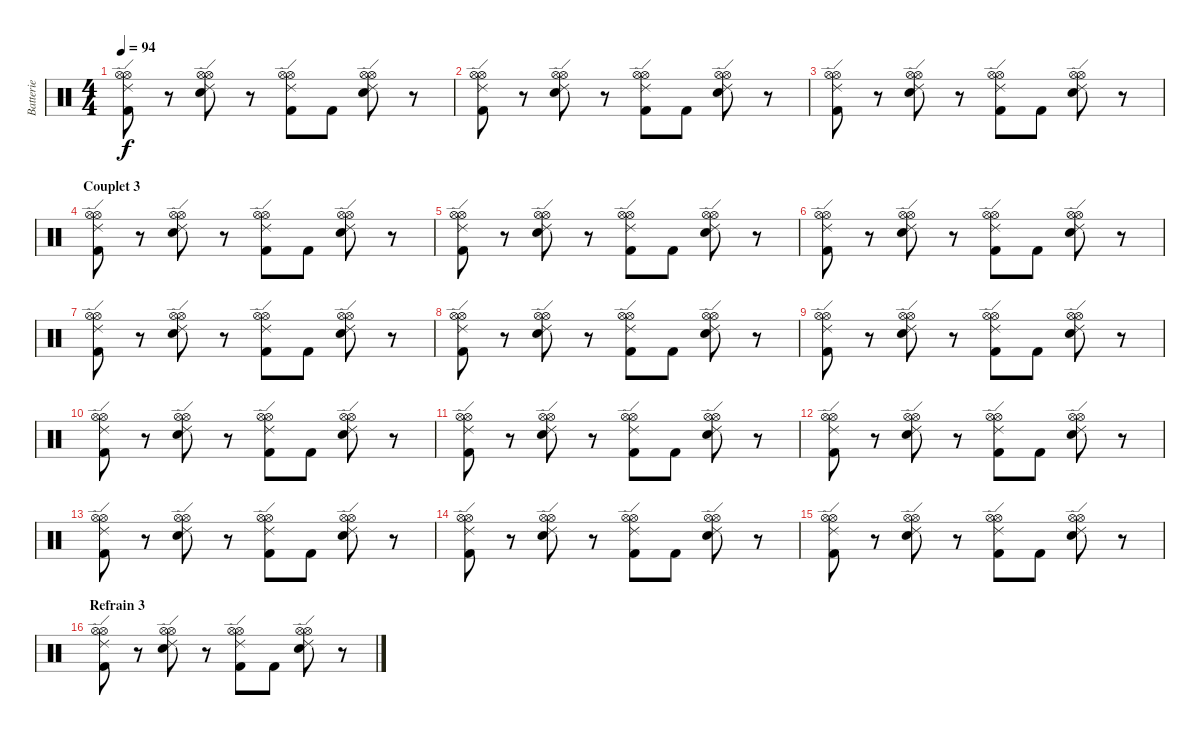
\track ("Batterie" "Batterie") {instrument percussion}
\staff {score}
\articulation defaults
\ts (4 4)
\tempo 94
\clef neutral
\ks c
("Hi-Hat (open)" "Hi-Hat (open)" "Ride (edge) 2" "Kick (hit) 2").8{dy f} r.8 ("Snare (hit) 2" "Hi-Hat (open)" "Hi-Hat (open)" "Ride (edge) 2").8 r.8 ("Hi-Hat (open)" "Hi-Hat (open)" "Ride (edge) 2" "Kick (hit) 2").8 "Kick (hit) 2".8 ("Snare (hit) 2" "Hi-Hat (open)" "Hi-Hat (open)" "Ride (edge) 2").8 r.8 |
("Hi-Hat (open)" "Hi-Hat (open)" "Ride (edge) 2" "Kick (hit) 2").8 r.8 ("Snare (hit) 2" "Hi-Hat (open)" "Hi-Hat (open)" "Ride (edge) 2").8 r.8 ("Hi-Hat (open)" "Hi-Hat (open)" "Ride (edge) 2" "Kick (hit) 2").8 "Kick (hit) 2".8 ("Snare (hit) 2" "Hi-Hat (open)" "Hi-Hat (open)" "Ride (edge) 2").8 r.8 |
("Hi-Hat (open)" "Hi-Hat (open)" "Ride (edge) 2" "Kick (hit) 2").8 r.8 ("Snare (hit) 2" "Hi-Hat (open)" "Hi-Hat (open)" "Ride (edge) 2").8 r.8 ("Hi-Hat (open)" "Hi-Hat (open)" "Ride (edge) 2" "Kick (hit) 2").8 "Kick (hit) 2".8 ("Snare (hit) 2" "Hi-Hat (open)" "Hi-Hat (open)" "Ride (edge) 2").8 r.8 |
\section ("" "Couplet 3")
("Hi-Hat (open)" "Hi-Hat (open)" "Ride (edge) 2" "Kick (hit) 2").8 r.8 ("Snare (hit) 2" "Hi-Hat (open)" "Hi-Hat (open)" "Ride (edge) 2").8 r.8 ("Hi-Hat (open)" "Hi-Hat (open)" "Ride (edge) 2" "Kick (hit) 2").8 "Kick (hit) 2".8 ("Snare (hit) 2" "Hi-Hat (open)" "Hi-Hat (open)" "Ride (edge) 2").8 r.8 |
("Hi-Hat (open)" "Hi-Hat (open)" "Ride (edge) 2" "Kick (hit) 2").8 r.8 ("Snare (hit) 2" "Hi-Hat (open)" "Hi-Hat (open)" "Ride (edge) 2").8 r.8 ("Hi-Hat (open)" "Hi-Hat (open)" "Ride (edge) 2" "Kick (hit) 2").8 "Kick (hit) 2".8 ("Snare (hit) 2" "Hi-Hat (open)" "Hi-Hat (open)" "Ride (edge) 2").8 r.8 |
("Hi-Hat (open)" "Hi-Hat (open)" "Ride (edge) 2" "Kick (hit) 2").8 r.8 ("Snare (hit) 2" "Hi-Hat (open)" "Hi-Hat (open)" "Ride (edge) 2").8 r.8 ("Hi-Hat (open)" "Hi-Hat (open)" "Ride (edge) 2" "Kick (hit) 2").8 "Kick (hit) 2".8 ("Snare (hit) 2" "Hi-Hat (open)" "Hi-Hat (open)" "Ride (edge) 2").8 r.8 |
("Hi-Hat (open)" "Hi-Hat (open)" "Ride (edge) 2" "Kick (hit) 2").8 r.8 ("Snare (hit) 2" "Hi-Hat (open)" "Hi-Hat (open)" "Ride (edge) 2").8 r.8 ("Hi-Hat (open)" "Hi-Hat (open)" "Ride (edge) 2" "Kick (hit) 2").8 "Kick (hit) 2".8 ("Snare (hit) 2" "Hi-Hat (open)" "Hi-Hat (open)" "Ride (edge) 2").8 r.8 |
("Hi-Hat (open)" "Hi-Hat (open)" "Ride (edge) 2" "Kick (hit) 2").8 r.8 ("Snare (hit) 2" "Hi-Hat (open)" "Hi-Hat (open)" "Ride (edge) 2").8 r.8 ("Hi-Hat (open)" "Hi-Hat (open)" "Ride (edge) 2" "Kick (hit) 2").8 "Kick (hit) 2".8 ("Snare (hit) 2" "Hi-Hat (open)" "Hi-Hat (open)" "Ride (edge) 2").8 r.8 |
("Hi-Hat (open)" "Hi-Hat (open)" "Ride (edge) 2" "Kick (hit) 2").8 r.8 ("Snare (hit) 2" "Hi-Hat (open)" "Hi-Hat (open)" "Ride (edge) 2").8 r.8 ("Hi-Hat (open)" "Hi-Hat (open)" "Ride (edge) 2" "Kick (hit) 2").8 "Kick (hit) 2".8 ("Snare (hit) 2" "Hi-Hat (open)" "Hi-Hat (open)" "Ride (edge) 2").8 r.8 |
("Hi-Hat (open)" "Hi-Hat (open)" "Ride (edge) 2" "Kick (hit) 2").8 r.8 ("Snare (hit) 2" "Hi-Hat (open)" "Hi-Hat (open)" "Ride (edge) 2").8 r.8 ("Hi-Hat (open)" "Hi-Hat (open)" "Ride (edge) 2" "Kick (hit) 2").8 "Kick (hit) 2".8 ("Snare (hit) 2" "Hi-Hat (open)" "Hi-Hat (open)" "Ride (edge) 2").8 r.8 |
("Hi-Hat (open)" "Hi-Hat (open)" "Ride (edge) 2" "Kick (hit) 2").8 r.8 ("Snare (hit) 2" "Hi-Hat (open)" "Hi-Hat (open)" "Ride (edge) 2").8 r.8 ("Hi-Hat (open)" "Hi-Hat (open)" "Ride (edge) 2" "Kick (hit) 2").8 "Kick (hit) 2".8 ("Snare (hit) 2" "Hi-Hat (open)" "Hi-Hat (open)" "Ride (edge) 2").8 r.8 |
("Hi-Hat (open)" "Hi-Hat (open)" "Ride (edge) 2" "Kick (hit) 2").8 r.8 ("Snare (hit) 2" "Hi-Hat (open)" "Hi-Hat (open)" "Ride (edge) 2").8 r.8 ("Hi-Hat (open)" "Hi-Hat (open)" "Ride (edge) 2" "Kick (hit) 2").8 "Kick (hit) 2".8 ("Snare (hit) 2" "Hi-Hat (open)" "Hi-Hat (open)" "Ride (edge) 2").8 r.8 |
("Hi-Hat (open)" "Hi-Hat (open)" "Ride (edge) 2" "Kick (hit) 2").8 r.8 ("Snare (hit) 2" "Hi-Hat (open)" "Hi-Hat (open)" "Ride (edge) 2").8 r.8 ("Hi-Hat (open)" "Hi-Hat (open)" "Ride (edge) 2" "Kick (hit) 2").8 "Kick (hit) 2".8 ("Snare (hit) 2" "Hi-Hat (open)" "Hi-Hat (open)" "Ride (edge) 2").8 r.8 |
("Hi-Hat (open)" "Hi-Hat (open)" "Ride (edge) 2" "Kick (hit) 2").8 r.8 ("Snare (hit) 2" "Hi-Hat (open)" "Hi-Hat (open)" "Ride (edge) 2").8 r.8 ("Hi-Hat (open)" "Hi-Hat (open)" "Ride (edge) 2" "Kick (hit) 2").8 "Kick (hit) 2".8 ("Snare (hit) 2" "Hi-Hat (open)" "Hi-Hat (open)" "Ride (edge) 2").8 r.8 |
("Hi-Hat (open)" "Hi-Hat (open)" "Ride (edge) 2" "Kick (hit) 2").8 r.8 ("Snare (hit) 2" "Hi-Hat (open)" "Hi-Hat (open)" "Ride (edge) 2").8 r.8 ("Hi-Hat (open)" "Hi-Hat (open)" "Ride (edge) 2" "Kick (hit) 2").8 "Kick (hit) 2".8 ("Snare (hit) 2" "Hi-Hat (open)" "Hi-Hat (open)" "Ride (edge) 2").8 r.8 |
\section ("" "Refrain 3")
("Hi-Hat (open)" "Hi-Hat (open)" "Ride (edge) 2" "Kick (hit) 2").8 r.8 ("Snare (hit) 2" "Hi-Hat (open)" "Hi-Hat (open)" "Ride (edge) 2").8 r.8 ("Hi-Hat (open)" "Hi-Hat (open)" "Ride (edge) 2" "Kick (hit) 2").8 "Kick (hit) 2".8 ("Snare (hit) 2" "Hi-Hat (open)" "Hi-Hat (open)" "Ride (edge) 2").8 r.8
